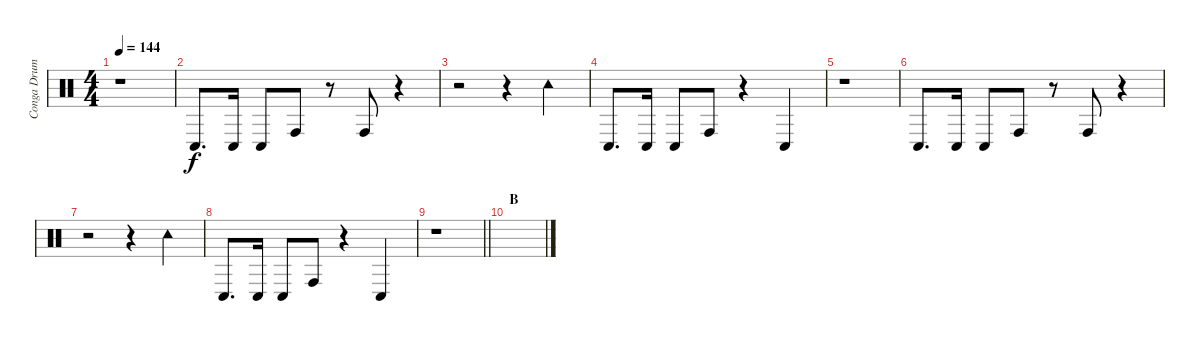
\track ("Conga Drums" "Conga Drum") {instrument percussion}
\staff {score}
\articulation defaults
\ts (4 4)
\tempo 144
\clef neutral
\ks c
r.1{dy f} |
"Conga low (hit)".8{d} "Conga low (hit)".16 "Conga low (hit)".8 "Conga high (hit)".8 r.8 "Conga high (hit)".8 r.4 |
r.2 r.4 "Tambourine (hit)".4 |
"Conga low (hit)".8{d} "Conga low (hit)".16 "Conga low (hit)".8 "Conga high (hit)".8 r.4 "Conga low (hit)".4 |
r.1 |
"Conga low (hit)".8{d} "Conga low (hit)".16 "Conga low (hit)".8 "Conga high (hit)".8 r.8 "Conga high (hit)".8 r.4 |
r.2 r.4 "Tambourine (hit)".4 |
"Conga low (hit)".8{d} "Conga low (hit)".16 "Conga low (hit)".8 "Conga high (hit)".8 r.4 "Conga low (hit)".4 |
\barLineRight lightlight
r.1 |
\section ("" "B")
